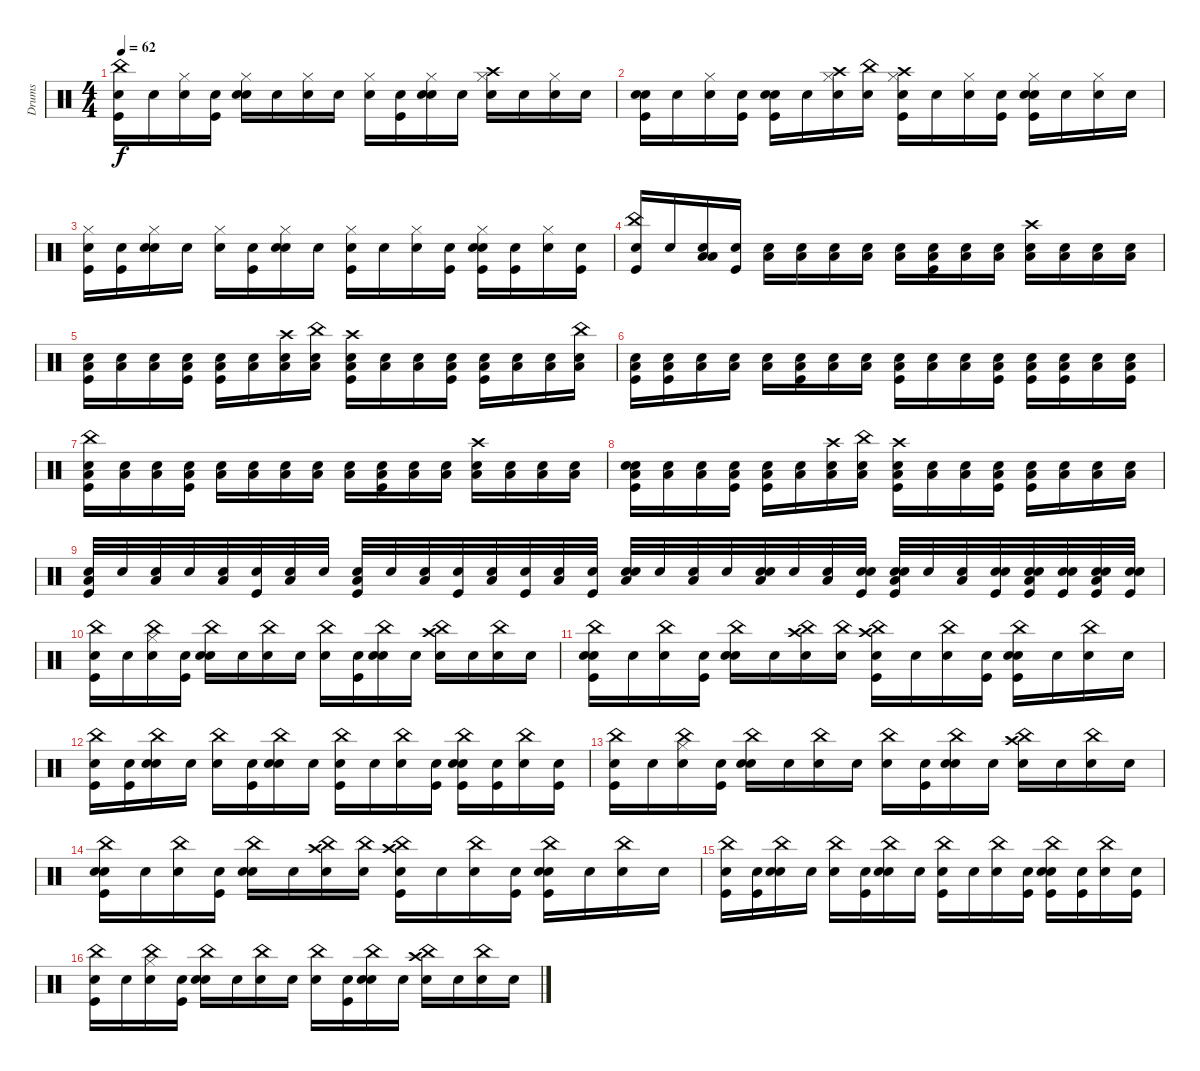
\track ("Drums" "Drums") {instrument percussion}
\staff {score}
\articulation defaults
\ts (4 4)
\tempo 62
\clef neutral
\ks c
("Snare (hit)" "China (hit)" "Kick (hit)").16{dy f} "Snare (hit)".16 ("Snare (hit)" "Hi-Hat (closed)").16 ("Snare (hit)" "Kick (hit)").16 ("Snare (hit)" "Snare (hit) 2" "Hi-Hat (closed)").16 "Snare (hit)".16 ("Snare (hit)" "Hi-Hat (closed)").16 "Snare (hit)".16 ("Snare (hit)" "Hi-Hat (closed)").16 ("Snare (hit)" "Kick (hit)").16 ("Snare (hit)" "Snare (hit) 2" "Hi-Hat (closed)").16 "Snare (hit)".16 ("Snare (hit)" "Crash high (hit)" "Hi-Hat (closed)").16 "Snare (hit)".16 ("Snare (hit)" "Hi-Hat (closed)").16 "Snare (hit)".16 |
("Snare (hit)" "Snare (hit) 2" "Kick (hit)").16 "Snare (hit)".16 ("Snare (hit)" "Hi-Hat (closed)").16 ("Snare (hit)" "Kick (hit)").16 ("Snare (hit)" "Snare (hit) 2" "Kick (hit)").16 "Snare (hit)".16 ("Snare (hit)" "Crash high (hit)" "Hi-Hat (closed)").16 ("Snare (hit)" "China (hit)").16 ("Snare (hit)" "Crash high (hit)" "Kick (hit)" "Hi-Hat (closed)").16 "Snare (hit)".16 ("Snare (hit)" "Hi-Hat (closed)").16 ("Snare (hit)" "Kick (hit)").16 ("Snare (hit)" "Snare (hit) 2" "Kick (hit)" "Hi-Hat (closed)").16 "Snare (hit)".16 ("Snare (hit)" "Hi-Hat (closed)").16 "Snare (hit)".16 |
("Snare (hit)" "Kick (hit)" "Hi-Hat (closed)").16 ("Snare (hit)" "Kick (hit)").16 ("Snare (hit)" "Snare (hit) 2" "Hi-Hat (closed)").16 "Snare (hit)".16 ("Snare (hit)" "Hi-Hat (closed)").16 ("Snare (hit)" "Kick (hit)").16 ("Snare (hit)" "Snare (hit) 2" "Hi-Hat (closed)").16 "Snare (hit)".16 ("Snare (hit)" "Kick (hit)" "Hi-Hat (closed)").16 "Snare (hit)".16 ("Snare (hit)" "Hi-Hat (closed)").16 ("Snare (hit)" "Kick (hit)").16 ("Snare (hit)" "Snare (hit) 2" "Kick (hit)" "Hi-Hat (closed)").16 ("Snare (hit)" "Kick (hit)").16 ("Snare (hit)" "Hi-Hat (closed)").16 ("Snare (hit)" "Kick (hit)").16 |
("Snare (hit)" "China (hit)" "Kick (hit)").16 "Snare (hit)".16 ("Snare (hit)" "Low Floor Tom (hit)" "Low Floor Tom (hit)").16 ("Snare (hit)" "Kick (hit)").16 ("Snare (hit)" "Low Floor Tom (hit)").16 ("Snare (hit)" "Low Floor Tom (hit)").16 ("Snare (hit)" "Low Floor Tom (hit)").16 ("Snare (hit)" "Low Floor Tom (hit)").16 ("Snare (hit)" "Low Floor Tom (hit)").16 ("Snare (hit)" "Low Floor Tom (hit)" "Kick (hit)").16 ("Snare (hit)" "Low Floor Tom (hit)").16 ("Snare (hit)" "Low Floor Tom (hit)").16 ("Snare (hit)" "Crash high (hit)" "Low Floor Tom (hit)").16 ("Snare (hit)" "Low Floor Tom (hit)").16 ("Snare (hit)" "Low Floor Tom (hit)").16 ("Snare (hit)" "Low Floor Tom (hit)").16 |
("Snare (hit)" "Kick (hit)" "Low Floor Tom (hit)").16 ("Snare (hit)" "Low Floor Tom (hit)").16 ("Snare (hit)" "Low Floor Tom (hit)").16 ("Snare (hit)" "Kick (hit)" "Low Floor Tom (hit)").16 ("Snare (hit)" "Kick (hit)" "Low Floor Tom (hit)").16 ("Snare (hit)" "Low Floor Tom (hit)").16 ("Snare (hit)" "Crash high (hit)" "Low Floor Tom (hit)").16 ("Snare (hit)" "China (hit)" "Low Floor Tom (hit)").16 ("Snare (hit)" "Crash high (hit)" "Kick (hit)" "Low Floor Tom (hit)").16 ("Snare (hit)" "Low Floor Tom (hit)").16 ("Snare (hit)" "Low Floor Tom (hit)").16 ("Snare (hit)" "Kick (hit)" "Low Floor Tom (hit)").16 ("Snare (hit)" "Kick (hit)" "Low Floor Tom (hit)").16 ("Snare (hit)" "Low Floor Tom (hit)").16 ("Snare (hit)" "Low Floor Tom (hit)").16 ("Snare (hit)" "China (hit)" "Low Floor Tom (hit)").16 |
("Snare (hit)" "Kick (hit)" "Low Floor Tom (hit)").16 ("Snare (hit)" "Kick (hit)" "Low Floor Tom (hit)").16 ("Snare (hit)" "Low Floor Tom (hit)").16 ("Snare (hit)" "Low Floor Tom (hit)").16 ("Snare (hit)" "Low Floor Tom (hit)").16 ("Snare (hit)" "Kick (hit)" "Low Floor Tom (hit)").16 ("Snare (hit)" "Low Floor Tom (hit)").16 ("Snare (hit)" "Low Floor Tom (hit)").16 ("Snare (hit)" "Kick (hit)" "Low Floor Tom (hit)").16 ("Snare (hit)" "Low Floor Tom (hit)").16 ("Snare (hit)" "Low Floor Tom (hit)").16 ("Snare (hit)" "Kick (hit)" "Low Floor Tom (hit)").16 ("Snare (hit)" "Kick (hit)" "Low Floor Tom (hit)").16 ("Snare (hit)" "Kick (hit)" "Low Floor Tom (hit)").16 ("Snare (hit)" "Low Floor Tom (hit)").16 ("Snare (hit)" "Kick (hit)" "Low Floor Tom (hit)").16 |
("Snare (hit)" "China (hit)" "Kick (hit)" "Low Floor Tom (hit)").16 ("Snare (hit)" "Low Floor Tom (hit)").16 ("Snare (hit)" "Low Floor Tom (hit)").16 ("Snare (hit)" "Kick (hit)" "Low Floor Tom (hit)").16 ("Snare (hit)" "Low Floor Tom (hit)").16 ("Snare (hit)" "Low Floor Tom (hit)").16 ("Snare (hit)" "Low Floor Tom (hit)").16 ("Snare (hit)" "Low Floor Tom (hit)").16 ("Snare (hit)" "Low Floor Tom (hit)").16 ("Snare (hit)" "Kick (hit)" "Low Floor Tom (hit)").16 ("Snare (hit)" "Low Floor Tom (hit)").16 ("Snare (hit)" "Low Floor Tom (hit)").16 ("Snare (hit)" "Crash high (hit)" "Low Floor Tom (hit)").16 ("Snare (hit)" "Low Floor Tom (hit)").16 ("Snare (hit)" "Low Floor Tom (hit)").16 ("Snare (hit)" "Low Floor Tom (hit)").16 |
("Snare (hit)" "Snare (hit) 2" "Kick (hit)" "Low Floor Tom (hit)").16 ("Snare (hit)" "Low Floor Tom (hit)").16 ("Snare (hit)" "Low Floor Tom (hit)").16 ("Snare (hit)" "Kick (hit)" "Low Floor Tom (hit)").16 ("Snare (hit)" "Kick (hit)" "Low Floor Tom (hit)").16 ("Snare (hit)" "Low Floor Tom (hit)").16 ("Snare (hit)" "Crash high (hit)" "Low Floor Tom (hit)").16 ("Snare (hit)" "China (hit)" "Low Floor Tom (hit)").16 ("Snare (hit)" "Crash high (hit)" "Kick (hit)" "Low Floor Tom (hit)").16 ("Snare (hit)" "Low Floor Tom (hit)").16 ("Snare (hit)" "Low Floor Tom (hit)").16 ("Snare (hit)" "Kick (hit)" "Low Floor Tom (hit)").16 ("Snare (hit)" "Kick (hit)" "Low Floor Tom (hit)").16 ("Snare (hit)" "Low Floor Tom (hit)").16 ("Snare (hit)" "Low Floor Tom (hit)").16 ("Snare (hit)" "Low Floor Tom (hit)").16 |
("Snare (hit)" "Kick (hit)" "Low Floor Tom (hit)").32 "Snare (hit)".32 ("Snare (hit)" "Low Floor Tom (hit)").32 "Snare (hit)".32 ("Snare (hit)" "Low Floor Tom (hit)").32 ("Snare (hit)" "Kick (hit)").32 ("Snare (hit)" "Low Floor Tom (hit)").32 "Snare (hit)".32 ("Snare (hit)" "Kick (hit)" "Low Floor Tom (hit)").32 "Snare (hit)".32 ("Snare (hit)" "Low Floor Tom (hit)").32 ("Snare (hit)" "Kick (hit)").32 ("Snare (hit)" "Low Floor Tom (hit)").32 ("Snare (hit)" "Kick (hit)").32 ("Snare (hit)" "Low Floor Tom (hit)").32 ("Snare (hit)" "Kick (hit)").32 ("Snare (hit)" "Snare (hit) 2" "Low Floor Tom (hit)").32 "Snare (hit)".32 ("Snare (hit)" "Low Floor Tom (hit)").32 "Snare (hit)".32 ("Snare (hit)" "Snare (hit) 2" "Low Floor Tom (hit)").32 "Snare (hit)".32 ("Snare (hit)" "Low Floor Tom (hit)").32 ("Snare (hit)" "Snare (hit) 2" "Kick (hit)").32 ("Snare (hit)" "Snare (hit) 2" "Kick (hit)" "Low Floor Tom (hit)").32 "Snare (hit)".32 ("Snare (hit)" "Low Floor Tom (hit)").32 ("Snare (hit)" "Snare (hit) 2" "Kick (hit)").32 ("Snare (hit)" "Snare (hit) 2" "Kick (hit)" "Low Floor Tom (hit)").32 ("Snare (hit)" "Snare (hit) 2" "Kick (hit)").32 ("Snare (hit)" "Snare (hit) 2" "Kick (hit)" "Low Floor Tom (hit)").32 ("Snare (hit)" "Snare (hit) 2" "Kick (hit)").32 |
("Snare (hit)" "China (hit)" "Kick (hit)").16 "Snare (hit)".16 ("Snare (hit)" "Hi-Hat (closed)" "China (hit)").16 ("Snare (hit)" "Kick (hit)").16 ("Snare (hit)" "Snare (hit) 2" "China (hit)").16 "Snare (hit)".16 ("Snare (hit)" "China (hit)").16 "Snare (hit)".16 ("Snare (hit)" "China (hit)").16 ("Snare (hit)" "Kick (hit)").16 ("Snare (hit)" "Snare (hit) 2" "China (hit)").16 "Snare (hit)".16 ("Snare (hit)" "Crash high (hit)" "China (hit)").16 "Snare (hit)".16 ("Snare (hit)" "China (hit)").16 "Snare (hit)".16 |
("Snare (hit)" "Snare (hit) 2" "Kick (hit)" "China (hit)").16 "Snare (hit)".16 ("Snare (hit)" "China (hit)").16 ("Snare (hit)" "Kick (hit)").16 ("Snare (hit)" "Snare (hit) 2" "China (hit)").16 "Snare (hit)".16 ("Snare (hit)" "Crash high (hit)" "China (hit)").16 ("Snare (hit)" "China (hit)").16 ("Snare (hit)" "Crash high (hit)" "Kick (hit)" "China (hit)").16 "Snare (hit)".16 ("Snare (hit)" "China (hit)").16 ("Snare (hit)" "Kick (hit)").16 ("Snare (hit)" "Snare (hit) 2" "Kick (hit)" "China (hit)").16 "Snare (hit)".16 ("Snare (hit)" "China (hit)").16 "Snare (hit)".16 |
("Snare (hit)" "Kick (hit)" "China (hit)").16 ("Snare (hit)" "Kick (hit)").16 ("Snare (hit)" "Snare (hit) 2" "China (hit)").16 "Snare (hit)".16 ("Snare (hit)" "China (hit)").16 ("Snare (hit)" "Kick (hit)").16 ("Snare (hit)" "Snare (hit) 2" "China (hit)").16 "Snare (hit)".16 ("Snare (hit)" "Kick (hit)" "China (hit)").16 "Snare (hit)".16 ("Snare (hit)" "China (hit)").16 ("Snare (hit)" "Kick (hit)").16 ("Snare (hit)" "Snare (hit) 2" "Kick (hit)" "China (hit)").16 ("Snare (hit)" "Kick (hit)").16 ("Snare (hit)" "China (hit)").16 ("Snare (hit)" "Kick (hit)").16 |
("Snare (hit)" "China (hit)" "Kick (hit)").16 "Snare (hit)".16 ("Snare (hit)" "Hi-Hat (closed)" "China (hit)").16 ("Snare (hit)" "Kick (hit)").16 ("Snare (hit)" "Snare (hit) 2" "China (hit)").16 "Snare (hit)".16 ("Snare (hit)" "China (hit)").16 "Snare (hit)".16 ("Snare (hit)" "China (hit)").16 ("Snare (hit)" "Kick (hit)").16 ("Snare (hit)" "Snare (hit) 2" "China (hit)").16 "Snare (hit)".16 ("Snare (hit)" "Crash high (hit)" "China (hit)").16 "Snare (hit)".16 ("Snare (hit)" "China (hit)").16 "Snare (hit)".16 |
("Snare (hit)" "Snare (hit) 2" "Kick (hit)" "China (hit)").16 "Snare (hit)".16 ("Snare (hit)" "China (hit)").16 ("Snare (hit)" "Kick (hit)").16 ("Snare (hit)" "Snare (hit) 2" "China (hit)").16 "Snare (hit)".16 ("Snare (hit)" "Crash high (hit)" "China (hit)").16 ("Snare (hit)" "China (hit)").16 ("Snare (hit)" "Crash high (hit)" "Kick (hit)" "China (hit)").16 "Snare (hit)".16 ("Snare (hit)" "China (hit)").16 ("Snare (hit)" "Kick (hit)").16 ("Snare (hit)" "Snare (hit) 2" "Kick (hit)" "China (hit)").16 "Snare (hit)".16 ("Snare (hit)" "China (hit)").16 "Snare (hit)".16 |
("Snare (hit)" "Kick (hit)" "China (hit)").16 ("Snare (hit)" "Kick (hit)").16 ("Snare (hit)" "Snare (hit) 2" "China (hit)").16 "Snare (hit)".16 ("Snare (hit)" "China (hit)").16 ("Snare (hit)" "Kick (hit)").16 ("Snare (hit)" "Snare (hit) 2" "China (hit)").16 "Snare (hit)".16 ("Snare (hit)" "Kick (hit)" "China (hit)").16 "Snare (hit)".16 ("Snare (hit)" "China (hit)").16 ("Snare (hit)" "Kick (hit)").16 ("Snare (hit)" "Snare (hit) 2" "Kick (hit)" "China (hit)").16 ("Snare (hit)" "Kick (hit)").16 ("Snare (hit)" "China (hit)").16 ("Snare (hit)" "Kick (hit)").16 |
("Snare (hit)" "China (hit)" "Kick (hit)").16 "Snare (hit)".16 ("Snare (hit)" "Hi-Hat (closed)" "China (hit)").16 ("Snare (hit)" "Kick (hit)").16 ("Snare (hit)" "Snare (hit) 2" "China (hit)").16 "Snare (hit)".16 ("Snare (hit)" "China (hit)").16 "Snare (hit)".16 ("Snare (hit)" "China (hit)").16 ("Snare (hit)" "Kick (hit)").16 ("Snare (hit)" "Snare (hit) 2" "China (hit)").16 "Snare (hit)".16 ("Snare (hit)" "Crash high (hit)" "China (hit)").16 "Snare (hit)".16 ("Snare (hit)" "China (hit)").16 "Snare (hit)".16
